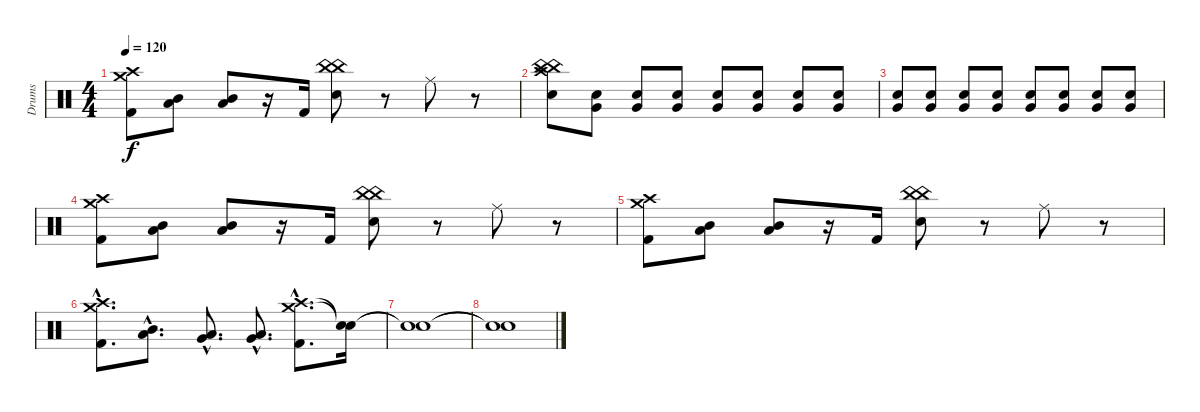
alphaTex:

\track ("Drums" "Drums") {instrument percussion}
\staff {score}
\articulation defaults
\ts (4 4)
\tempo 120
\clef neutral
\ks c
("Crash high (hit)" "Crash medium (hit)" "Kick (hit) 2").8{dy f} ("Mid Tom (hit)" "Low Tom (hit)").8 ("Mid Tom (hit)" "Low Tom (hit)").8 r.16 "Kick (hit) 2".16 ("China (hit)" "China (hit)" "Electric Snare (hit)").8 r.8 "Ride (middle)".8 r.8 |
("Crash high (hit)" "China (hit)" "China (hit)" "Electric Snare (hit)").8 ("Electric Snare (hit)" "Very Low Tom (hit)").8 ("Electric Snare (hit)" "Very Low Tom (hit)").8 ("Electric Snare (hit)" "Very Low Tom (hit)").8 ("Electric Snare (hit)" "Very Low Tom (hit)").8 ("Electric Snare (hit)" "Very Low Tom (hit)").8 ("Electric Snare (hit)" "Very Low Tom (hit)").8 ("Electric Snare (hit)" "Very Low Tom (hit)").8 |
("Electric Snare (hit)" "Very Low Tom (hit)").8 ("Electric Snare (hit)" "Very Low Tom (hit)").8 ("Electric Snare (hit)" "Very Low Tom (hit)").8 ("Electric Snare (hit)" "Very Low Tom (hit)").8 ("Electric Snare (hit)" "Very Low Tom (hit)").8 ("Electric Snare (hit)" "Very Low Tom (hit)").8 ("Electric Snare (hit)" "Very Low Tom (hit)").8 ("Electric Snare (hit)" "Very Low Tom (hit)").8 |
("Crash high (hit)" "Crash medium (hit)" "Kick (hit) 2").8 ("Mid Tom (hit)" "Low Tom (hit)").8 ("Mid Tom (hit)" "Low Tom (hit)").8 r.16 "Kick (hit) 2".16 ("China (hit)" "China (hit)" "Electric Snare (hit)").8 r.8 "Ride (middle)".8 r.8 |
("Crash high (hit)" "Crash medium (hit)" "Kick (hit) 2").8 ("Mid Tom (hit)" "Low Tom (hit)").8 ("Mid Tom (hit)" "Low Tom (hit)").8 r.16 "Kick (hit) 2".16 ("China (hit)" "China (hit)" "Electric Snare (hit)").8 r.8 "Ride (middle)".8 r.8 |
("Crash high (hit)"{hac} "Crash medium (hit)"{hac} "Kick (hit) 2"{hac}).8{d} ("Mid Tom (hit)"{hac} "Low Tom (hit)"{hac}).8{d} ("Low Tom (hit)"{hac} "Very Low Tom (hit)"{hac}).8{d} ("Very Low Tom (hit)"{hac} "Low Floor Tom (hit)"{hac}).8{d} ("Crash high (hit)"{hac} "Crash medium (hit)"{hac} "Kick (hit) 2"{hac}).8{d} ("Snare (hit)"{t} "Snare (hit)"{t}).16 |
("Snare (hit)"{t} "Snare (hit)"{t}).1 |
("Snare (hit)"{t} "Snare (hit)"{t}).1
